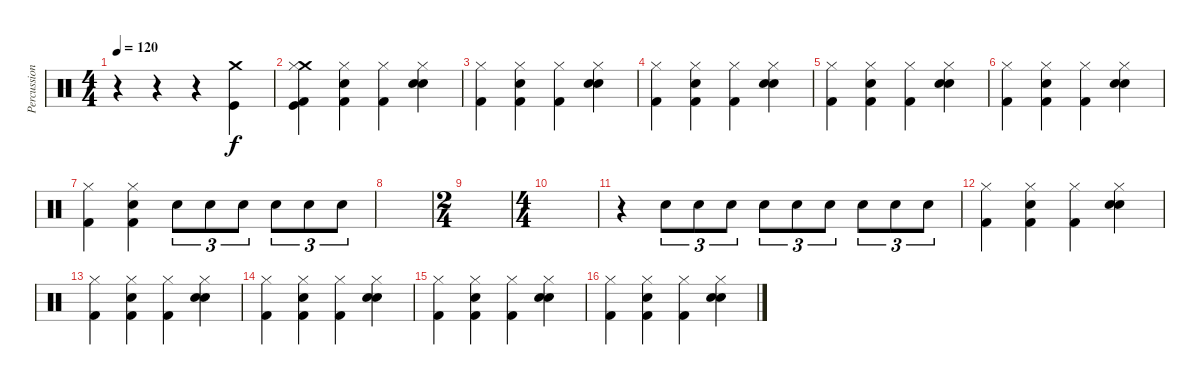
\track ("Percussion" "Percussion") {instrument percussion}
\staff {score}
\articulation defaults
\ts (4 4)
\tempo 120
\clef neutral
\ks c
r.4{dy f} r.4 r.4 ("Crash medium (hit)" "Kick (hit)").4 |
("Crash medium (hit)" "Hi-Hat (closed)" "Kick (hit) 2" "Kick (hit)").4 ("Hi-Hat (closed)" "Snare (hit) 2" "Kick (hit) 2").4 ("Hi-Hat (closed)" "Kick (hit) 2").4 ("Hi-Hat (closed)" "Snare (hit) 2" "Snare (hit) 2").4 |
("Hi-Hat (closed)" "Kick (hit) 2").4 ("Hi-Hat (closed)" "Snare (hit) 2" "Kick (hit) 2").4 ("Hi-Hat (closed)" "Kick (hit) 2").4 ("Hi-Hat (closed)" "Snare (hit) 2" "Snare (hit) 2").4 |
("Hi-Hat (closed)" "Kick (hit) 2").4 ("Hi-Hat (closed)" "Snare (hit) 2" "Kick (hit) 2").4 ("Hi-Hat (closed)" "Kick (hit) 2").4 ("Hi-Hat (closed)" "Snare (hit) 2" "Snare (hit) 2").4 |
("Hi-Hat (closed)" "Kick (hit) 2").4 ("Hi-Hat (closed)" "Snare (hit) 2" "Kick (hit) 2").4 ("Hi-Hat (closed)" "Kick (hit) 2").4 ("Hi-Hat (closed)" "Snare (hit) 2" "Snare (hit) 2").4 |
("Hi-Hat (closed)" "Kick (hit) 2").4 ("Hi-Hat (closed)" "Snare (hit) 2" "Kick (hit) 2").4 ("Hi-Hat (closed)" "Kick (hit) 2").4 ("Hi-Hat (closed)" "Snare (hit) 2" "Snare (hit) 2").4 |
("Hi-Hat (closed)" "Kick (hit) 2").4 ("Hi-Hat (closed)" "Snare (hit) 2" "Kick (hit) 2").4 "Snare (hit) 2".8{tu (3 2)} "Snare (hit) 2".8{tu (3 2)} "Snare (hit) 2".8{tu (3 2)} "Snare (hit) 2".8{tu (3 2)} "Snare (hit) 2".8{tu (3 2)} "Snare (hit) 2".8{tu (3 2)} |
|
\ts (2 4)
|
\ts (4 4)
|
r.4 "Snare (hit) 2".8{tu (3 2)} "Snare (hit) 2".8{tu (3 2)} "Snare (hit) 2".8{tu (3 2)} "Snare (hit) 2".8{tu (3 2)} "Snare (hit) 2".8{tu (3 2)} "Snare (hit) 2".8{tu (3 2)} "Snare (hit) 2".8{tu (3 2)} "Snare (hit) 2".8{tu (3 2)} "Snare (hit) 2".8{tu (3 2)} |
("Hi-Hat (closed)" "Kick (hit) 2").4 ("Hi-Hat (closed)" "Snare (hit) 2" "Kick (hit) 2").4 ("Hi-Hat (closed)" "Kick (hit) 2").4 ("Hi-Hat (closed)" "Snare (hit) 2" "Snare (hit) 2").4 |
("Hi-Hat (closed)" "Kick (hit) 2").4 ("Hi-Hat (closed)" "Snare (hit) 2" "Kick (hit) 2").4 ("Hi-Hat (closed)" "Kick (hit) 2").4 ("Hi-Hat (closed)" "Snare (hit) 2" "Snare (hit) 2").4 |
("Hi-Hat (closed)" "Kick (hit) 2").4 ("Hi-Hat (closed)" "Snare (hit) 2" "Kick (hit) 2").4 ("Hi-Hat (closed)" "Kick (hit) 2").4 ("Hi-Hat (closed)" "Snare (hit) 2" "Snare (hit) 2").4 |
("Hi-Hat (closed)" "Kick (hit) 2").4 ("Hi-Hat (closed)" "Snare (hit) 2" "Kick (hit) 2").4 ("Hi-Hat (closed)" "Kick (hit) 2").4 ("Hi-Hat (closed)" "Snare (hit) 2" "Snare (hit) 2").4 |
("Hi-Hat (closed)" "Kick (hit) 2").4 ("Hi-Hat (closed)" "Snare (hit) 2" "Kick (hit) 2").4 ("Hi-Hat (closed)" "Kick (hit) 2").4 ("Hi-Hat (closed)" "Snare (hit) 2" "Snare (hit) 2").4
